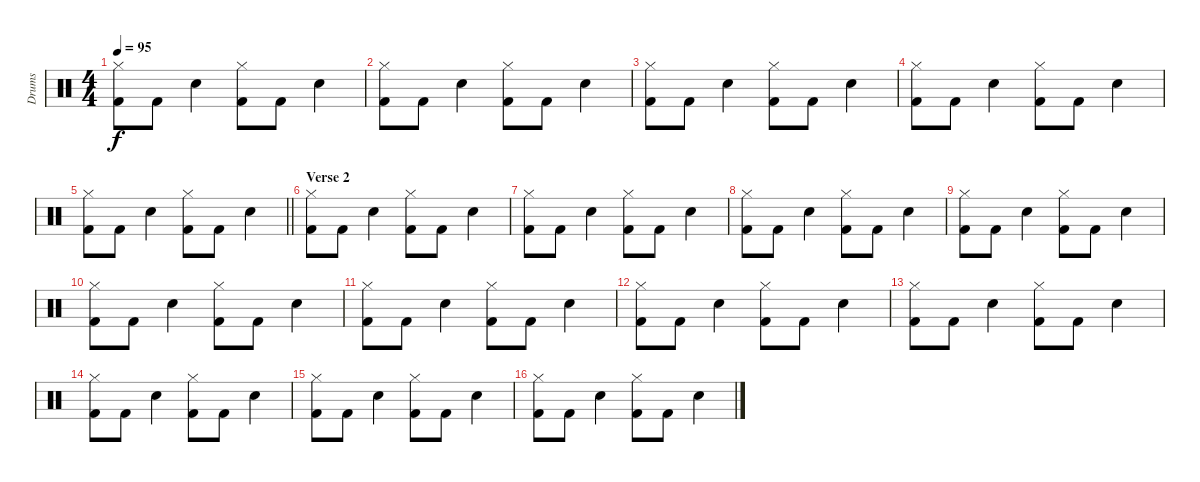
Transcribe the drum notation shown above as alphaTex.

\track ("Drums" "Drums") {instrument percussion}
\staff {score}
\articulation defaults
\ts (4 4)
\tempo 95
\clef neutral
\ks c
("Hi-Hat (closed)" "Kick (hit) 2").8{dy f} "Kick (hit) 2".8 "Electric Snare (hit)".4 ("Hi-Hat (closed)" "Kick (hit) 2").8 "Kick (hit) 2".8 "Electric Snare (hit)".4 |
("Hi-Hat (closed)" "Kick (hit) 2").8 "Kick (hit) 2".8 "Electric Snare (hit)".4 ("Hi-Hat (closed)" "Kick (hit) 2").8 "Kick (hit) 2".8 "Electric Snare (hit)".4 |
("Hi-Hat (closed)" "Kick (hit) 2").8 "Kick (hit) 2".8 "Electric Snare (hit)".4 ("Hi-Hat (closed)" "Kick (hit) 2").8 "Kick (hit) 2".8 "Electric Snare (hit)".4 |
("Hi-Hat (closed)" "Kick (hit) 2").8 "Kick (hit) 2".8 "Electric Snare (hit)".4 ("Hi-Hat (closed)" "Kick (hit) 2").8 "Kick (hit) 2".8 "Electric Snare (hit)".4 |
\barLineRight lightlight
("Hi-Hat (closed)" "Kick (hit) 2").8 "Kick (hit) 2".8 "Electric Snare (hit)".4 ("Hi-Hat (closed)" "Kick (hit) 2").8 "Kick (hit) 2".8 "Electric Snare (hit)".4 |
\section ("" "Verse 2")
("Hi-Hat (closed)" "Kick (hit) 2").8 "Kick (hit) 2".8 "Electric Snare (hit)".4 ("Hi-Hat (closed)" "Kick (hit) 2").8 "Kick (hit) 2".8 "Electric Snare (hit)".4 |
("Hi-Hat (closed)" "Kick (hit) 2").8 "Kick (hit) 2".8 "Electric Snare (hit)".4 ("Hi-Hat (closed)" "Kick (hit) 2").8 "Kick (hit) 2".8 "Electric Snare (hit)".4 |
("Hi-Hat (closed)" "Kick (hit) 2").8 "Kick (hit) 2".8 "Electric Snare (hit)".4 ("Hi-Hat (closed)" "Kick (hit) 2").8 "Kick (hit) 2".8 "Electric Snare (hit)".4 |
("Hi-Hat (closed)" "Kick (hit) 2").8 "Kick (hit) 2".8 "Electric Snare (hit)".4 ("Hi-Hat (closed)" "Kick (hit) 2").8 "Kick (hit) 2".8 "Electric Snare (hit)".4 |
("Hi-Hat (closed)" "Kick (hit) 2").8 "Kick (hit) 2".8 "Electric Snare (hit)".4 ("Hi-Hat (closed)" "Kick (hit) 2").8 "Kick (hit) 2".8 "Electric Snare (hit)".4 |
("Hi-Hat (closed)" "Kick (hit) 2").8 "Kick (hit) 2".8 "Electric Snare (hit)".4 ("Hi-Hat (closed)" "Kick (hit) 2").8 "Kick (hit) 2".8 "Electric Snare (hit)".4 |
("Hi-Hat (closed)" "Kick (hit) 2").8 "Kick (hit) 2".8 "Electric Snare (hit)".4 ("Hi-Hat (closed)" "Kick (hit) 2").8 "Kick (hit) 2".8 "Electric Snare (hit)".4 |
("Hi-Hat (closed)" "Kick (hit) 2").8 "Kick (hit) 2".8 "Electric Snare (hit)".4 ("Hi-Hat (closed)" "Kick (hit) 2").8 "Kick (hit) 2".8 "Electric Snare (hit)".4 |
("Hi-Hat (closed)" "Kick (hit) 2").8 "Kick (hit) 2".8 "Electric Snare (hit)".4 ("Hi-Hat (closed)" "Kick (hit) 2").8 "Kick (hit) 2".8 "Electric Snare (hit)".4 |
("Hi-Hat (closed)" "Kick (hit) 2").8 "Kick (hit) 2".8 "Electric Snare (hit)".4 ("Hi-Hat (closed)" "Kick (hit) 2").8 "Kick (hit) 2".8 "Electric Snare (hit)".4 |
("Hi-Hat (closed)" "Kick (hit) 2").8 "Kick (hit) 2".8 "Electric Snare (hit)".4 ("Hi-Hat (closed)" "Kick (hit) 2").8 "Kick (hit) 2".8 "Electric Snare (hit)".4
